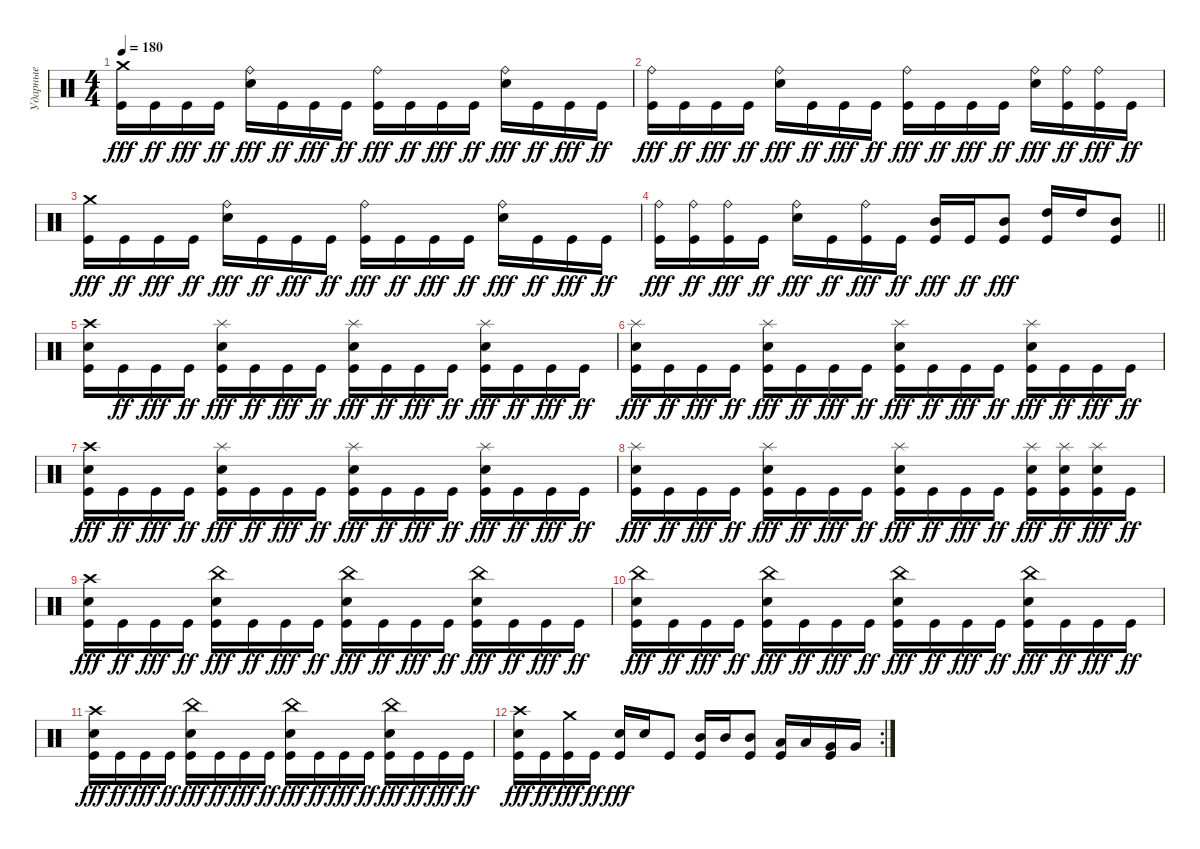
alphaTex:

\track ("Ударные" "Ударные") {instrument percussion}
\staff {score}
\articulation defaults
\ts (4 4)
\tempo 180
\clef neutral
\ks c
("Crash medium (hit)" "Kick (hit)").16{dy fff} "Kick (hit)".16{dy ff} "Kick (hit)".16{dy fff} "Kick (hit)".16{dy ff} ("Ride (bell)" "Electric Snare (hit)").16{dy fff} "Kick (hit)".16{dy ff} "Kick (hit)".16{dy fff} "Kick (hit)".16{dy ff} ("Ride (bell)" "Kick (hit)").16{dy fff} "Kick (hit)".16{dy ff} "Kick (hit)".16{dy fff} "Kick (hit)".16{dy ff} ("Ride (bell)" "Electric Snare (hit)").16{dy fff} "Kick (hit)".16{dy ff} "Kick (hit)".16{dy fff} "Kick (hit)".16{dy ff} |
("Ride (bell)" "Kick (hit)").16{dy fff} "Kick (hit)".16{dy ff} "Kick (hit)".16{dy fff} "Kick (hit)".16{dy ff} ("Ride (bell)" "Electric Snare (hit)").16{dy fff} "Kick (hit)".16{dy ff} "Kick (hit)".16{dy fff} "Kick (hit)".16{dy ff} ("Ride (bell)" "Kick (hit)").16{dy fff} "Kick (hit)".16{dy ff} "Kick (hit)".16{dy fff} "Kick (hit)".16{dy ff} ("Ride (bell)" "Electric Snare (hit)").16{dy fff} ("Ride (bell)" "Kick (hit)").16{dy ff} ("Ride (bell)" "Kick (hit)").16{dy fff} "Kick (hit)".16{dy ff} |
("Crash medium (hit)" "Kick (hit)").16{dy fff} "Kick (hit)".16{dy ff} "Kick (hit)".16{dy fff} "Kick (hit)".16{dy ff} ("Ride (bell)" "Electric Snare (hit)").16{dy fff} "Kick (hit)".16{dy ff} "Kick (hit)".16{dy fff} "Kick (hit)".16{dy ff} ("Ride (bell)" "Kick (hit)").16{dy fff} "Kick (hit)".16{dy ff} "Kick (hit)".16{dy fff} "Kick (hit)".16{dy ff} ("Ride (bell)" "Electric Snare (hit)").16{dy fff} "Kick (hit)".16{dy ff} "Kick (hit)".16{dy fff} "Kick (hit)".16{dy ff} |
\barLineRight lightlight
("Ride (bell)" "Kick (hit)").16{dy fff} ("Ride (bell)" "Kick (hit)").16{dy ff} ("Ride (bell)" "Kick (hit)").16{dy fff} "Kick (hit)".16{dy ff} ("Ride (bell)" "Electric Snare (hit)").16{dy fff} "Kick (hit)".16{dy ff} ("Ride (bell)" "Kick (hit)").16{dy fff} "Kick (hit)".16{dy ff} ("Mid Tom (hit)" "Kick (hit)").16{dy fff} "Kick (hit)".16{dy ff} ("Mid Tom (hit)" "Kick (hit)").8{dy fff} ("High Tom (hit)" "Kick (hit)").16 "High Tom (hit)".16 ("Mid Tom (hit)" "Kick (hit)").8 |
("Crash high (hit)" "Electric Snare (hit)" "Kick (hit)").16 "Kick (hit)".16{dy ff} "Kick (hit)".16{dy fff} "Kick (hit)".16{dy ff} ("Splash (hit)" "Electric Snare (hit)" "Kick (hit)").16{dy fff} "Kick (hit)".16{dy ff} "Kick (hit)".16{dy fff} "Kick (hit)".16{dy ff} ("Splash (hit)" "Electric Snare (hit)" "Kick (hit)").16{dy fff} "Kick (hit)".16{dy ff} "Kick (hit)".16{dy fff} "Kick (hit)".16{dy ff} ("Splash (hit)" "Electric Snare (hit)" "Kick (hit)").16{dy fff} "Kick (hit)".16{dy ff} "Kick (hit)".16{dy fff} "Kick (hit)".16{dy ff} |
("Splash (hit)" "Electric Snare (hit)" "Kick (hit)").16{dy fff} "Kick (hit)".16{dy ff} "Kick (hit)".16{dy fff} "Kick (hit)".16{dy ff} ("Splash (hit)" "Electric Snare (hit)" "Kick (hit)").16{dy fff} "Kick (hit)".16{dy ff} "Kick (hit)".16{dy fff} "Kick (hit)".16{dy ff} ("Splash (hit)" "Electric Snare (hit)" "Kick (hit)").16{dy fff} "Kick (hit)".16{dy ff} "Kick (hit)".16{dy fff} "Kick (hit)".16{dy ff} ("Splash (hit)" "Electric Snare (hit)" "Kick (hit)").16{dy fff} "Kick (hit)".16{dy ff} "Kick (hit)".16{dy fff} "Kick (hit)".16{dy ff} |
("Crash high (hit)" "Electric Snare (hit)" "Kick (hit)").16{dy fff} "Kick (hit)".16{dy ff} "Kick (hit)".16{dy fff} "Kick (hit)".16{dy ff} ("Splash (hit)" "Electric Snare (hit)" "Kick (hit)").16{dy fff} "Kick (hit)".16{dy ff} "Kick (hit)".16{dy fff} "Kick (hit)".16{dy ff} ("Splash (hit)" "Electric Snare (hit)" "Kick (hit)").16{dy fff} "Kick (hit)".16{dy ff} "Kick (hit)".16{dy fff} "Kick (hit)".16{dy ff} ("Splash (hit)" "Electric Snare (hit)" "Kick (hit)").16{dy fff} "Kick (hit)".16{dy ff} "Kick (hit)".16{dy fff} "Kick (hit)".16{dy ff} |
("Splash (hit)" "Electric Snare (hit)" "Kick (hit)").16{dy fff} "Kick (hit)".16{dy ff} "Kick (hit)".16{dy fff} "Kick (hit)".16{dy ff} ("Splash (hit)" "Electric Snare (hit)" "Kick (hit)").16{dy fff} "Kick (hit)".16{dy ff} "Kick (hit)".16{dy fff} "Kick (hit)".16{dy ff} ("Splash (hit)" "Electric Snare (hit)" "Kick (hit)").16{dy fff} "Kick (hit)".16{dy ff} "Kick (hit)".16{dy fff} "Kick (hit)".16{dy ff} ("Splash (hit)" "Electric Snare (hit)" "Kick (hit)").16{dy fff} ("Splash (hit)" "Electric Snare (hit)" "Kick (hit)").16{dy ff} ("Splash (hit)" "Electric Snare (hit)" "Kick (hit)").16{dy fff} "Kick (hit)".16{dy ff} |
("Crash high (hit)" "Electric Snare (hit)" "Kick (hit)").16{dy fff} "Kick (hit)".16{dy ff} "Kick (hit)".16{dy fff} "Kick (hit)".16{dy ff} ("China (hit)" "Electric Snare (hit)" "Kick (hit)").16{dy fff} "Kick (hit)".16{dy ff} "Kick (hit)".16{dy fff} "Kick (hit)".16{dy ff} ("China (hit)" "Electric Snare (hit)" "Kick (hit)").16{dy fff} "Kick (hit)".16{dy ff} "Kick (hit)".16{dy fff} "Kick (hit)".16{dy ff} ("China (hit)" "Electric Snare (hit)" "Kick (hit)").16{dy fff} "Kick (hit)".16{dy ff} "Kick (hit)".16{dy fff} "Kick (hit)".16{dy ff} |
("China (hit)" "Electric Snare (hit)" "Kick (hit)").16{dy fff} "Kick (hit)".16{dy ff} "Kick (hit)".16{dy fff} "Kick (hit)".16{dy ff} ("China (hit)" "Electric Snare (hit)" "Kick (hit)").16{dy fff} "Kick (hit)".16{dy ff} "Kick (hit)".16{dy fff} "Kick (hit)".16{dy ff} ("China (hit)" "Electric Snare (hit)" "Kick (hit)").16{dy fff} "Kick (hit)".16{dy ff} "Kick (hit)".16{dy fff} "Kick (hit)".16{dy ff} ("China (hit)" "Electric Snare (hit)" "Kick (hit)").16{dy fff} "Kick (hit)".16{dy ff} "Kick (hit)".16{dy fff} "Kick (hit)".16{dy ff} |
("Crash high (hit)" "Electric Snare (hit)" "Kick (hit)").16{dy fff} "Kick (hit)".16{dy ff} "Kick (hit)".16{dy fff} "Kick (hit)".16{dy ff} ("China (hit)" "Electric Snare (hit)" "Kick (hit)").16{dy fff} "Kick (hit)".16{dy ff} "Kick (hit)".16{dy fff} "Kick (hit)".16{dy ff} ("China (hit)" "Electric Snare (hit)" "Kick (hit)").16{dy fff} "Kick (hit)".16{dy ff} "Kick (hit)".16{dy fff} "Kick (hit)".16{dy ff} ("China (hit)" "Electric Snare (hit)" "Kick (hit)").16{dy fff} "Kick (hit)".16{dy ff} "Kick (hit)".16{dy fff} "Kick (hit)".16{dy ff} |
\rc 2
("Crash high (hit)" "Electric Snare (hit)" "Kick (hit)").16{dy fff} "Kick (hit)".16{dy ff} ("Crash medium (hit)" "Kick (hit)").16{dy fff} "Kick (hit)".16{dy ff} ("Electric Snare (hit)" "Kick (hit)").16{dy fff} "Electric Snare (hit)".16 "Kick (hit)".8 ("Mid Tom (hit)" "Kick (hit)").16 "Mid Tom (hit)".16 ("Mid Tom (hit)" "Kick (hit)").8 ("Low Tom (hit)" "Kick (hit)").16 "Low Tom (hit)".16 ("Very Low Tom (hit)" "Kick (hit)").16 "Very Low Tom (hit)".16
